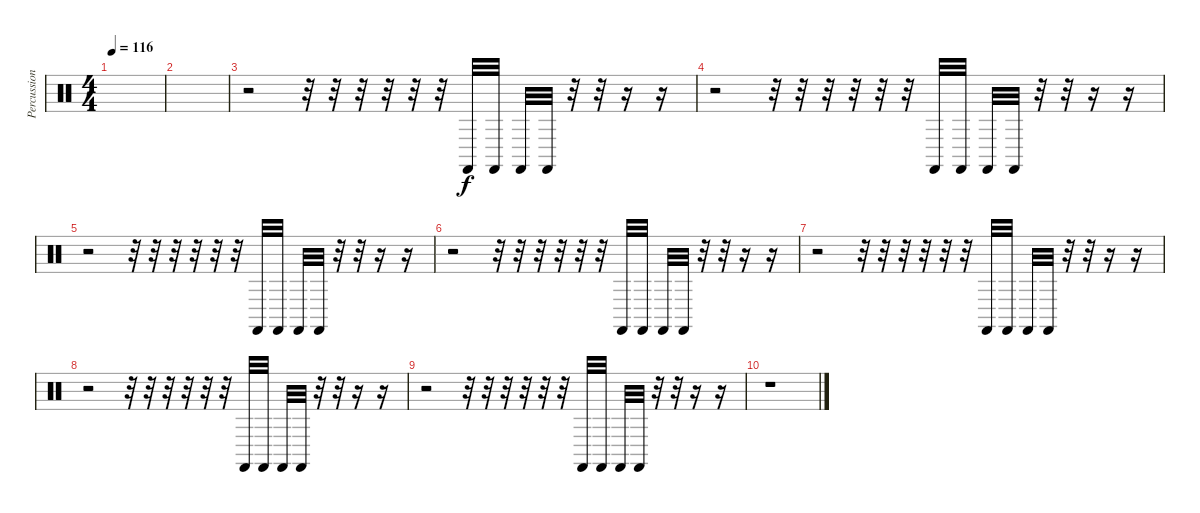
\track ("Percussion" "Percussion") {instrument percussion}
\staff {score}
\articulation defaults
\ts (4 4)
\tempo 116
\clef neutral
\ks c
|
|
r.2 r.32 r.32 r.32 r.32 r.32 r.32 "Castanets (hit)".32 "Castanets (hit)".32 "Castanets (hit)".32 "Castanets (hit)".32 r.32 r.32 r.16 r.16 |
r.2 r.32 r.32 r.32 r.32 r.32 r.32 "Castanets (hit)".32 "Castanets (hit)".32 "Castanets (hit)".32 "Castanets (hit)".32 r.32 r.32 r.16 r.16 |
r.2 r.32 r.32 r.32 r.32 r.32 r.32 "Castanets (hit)".32 "Castanets (hit)".32 "Castanets (hit)".32 "Castanets (hit)".32 r.32 r.32 r.16 r.16 |
r.2 r.32 r.32 r.32 r.32 r.32 r.32 "Castanets (hit)".32 "Castanets (hit)".32 "Castanets (hit)".32 "Castanets (hit)".32 r.32 r.32 r.16 r.16 |
r.2 r.32 r.32 r.32 r.32 r.32 r.32 "Castanets (hit)".32 "Castanets (hit)".32 "Castanets (hit)".32 "Castanets (hit)".32 r.32 r.32 r.16 r.16 |
r.2 r.32 r.32 r.32 r.32 r.32 r.32 "Castanets (hit)".32 "Castanets (hit)".32 "Castanets (hit)".32 "Castanets (hit)".32 r.32 r.32 r.16 r.16 |
r.2 r.32 r.32 r.32 r.32 r.32 r.32 "Castanets (hit)".32 "Castanets (hit)".32 "Castanets (hit)".32 "Castanets (hit)".32 r.32 r.32 r.16 r.16 |
r.1
